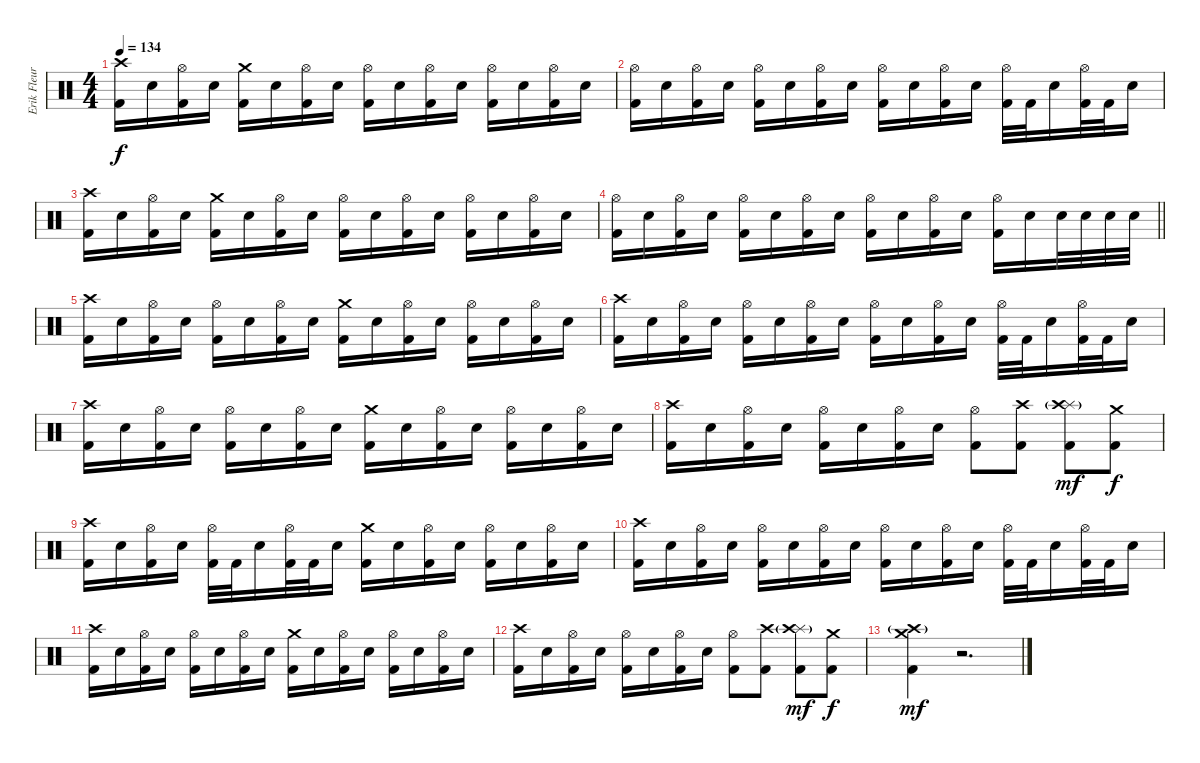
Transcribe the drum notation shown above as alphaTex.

\track ("Erik Fleuren" "Erik Fleur") {instrument percussion}
\staff {score}
\articulation defaults
\ts (4 4)
\tempo 134
\clef neutral
\ks c
("Crash high (hit)" "Kick (hit) 2").16{dy f} "Electric Snare (hit)".16 ("Hi-Hat (open)" "Kick (hit) 2").16 "Electric Snare (hit)".16 ("Crash medium (hit)" "Kick (hit) 2").16 "Electric Snare (hit)".16 ("Hi-Hat (open)" "Kick (hit) 2").16 "Electric Snare (hit)".16 ("Hi-Hat (open)" "Kick (hit) 2").16 "Electric Snare (hit)".16 ("Hi-Hat (open)" "Kick (hit) 2").16 "Electric Snare (hit)".16 ("Hi-Hat (open)" "Kick (hit) 2").16 "Electric Snare (hit)".16 ("Hi-Hat (open)" "Kick (hit) 2").16 "Electric Snare (hit)".16 |
("Hi-Hat (open)" "Kick (hit) 2").16 "Electric Snare (hit)".16 ("Hi-Hat (open)" "Kick (hit) 2").16 "Electric Snare (hit)".16 ("Hi-Hat (open)" "Kick (hit) 2").16 "Electric Snare (hit)".16 ("Hi-Hat (open)" "Kick (hit) 2").16 "Electric Snare (hit)".16 ("Hi-Hat (open)" "Kick (hit) 2").16 "Electric Snare (hit)".16 ("Hi-Hat (open)" "Kick (hit) 2").16 "Electric Snare (hit)".16 ("Hi-Hat (open)" "Kick (hit) 2").32 "Kick (hit) 2".32 "Electric Snare (hit)".16 ("Hi-Hat (open)" "Kick (hit) 2").32 "Kick (hit) 2".32 "Electric Snare (hit)".16 |
("Crash high (hit)" "Kick (hit) 2").16 "Electric Snare (hit)".16 ("Hi-Hat (open)" "Kick (hit) 2").16 "Electric Snare (hit)".16 ("Crash medium (hit)" "Kick (hit) 2").16 "Electric Snare (hit)".16 ("Hi-Hat (open)" "Kick (hit) 2").16 "Electric Snare (hit)".16 ("Hi-Hat (open)" "Kick (hit) 2").16 "Electric Snare (hit)".16 ("Hi-Hat (open)" "Kick (hit) 2").16 "Electric Snare (hit)".16 ("Hi-Hat (open)" "Kick (hit) 2").16 "Electric Snare (hit)".16 ("Hi-Hat (open)" "Kick (hit) 2").16 "Electric Snare (hit)".16 |
\barLineRight lightlight
("Hi-Hat (open)" "Kick (hit) 2").16 "Electric Snare (hit)".16 ("Hi-Hat (open)" "Kick (hit) 2").16 "Electric Snare (hit)".16 ("Hi-Hat (open)" "Kick (hit) 2").16 "Electric Snare (hit)".16 ("Hi-Hat (open)" "Kick (hit) 2").16 "Electric Snare (hit)".16 ("Hi-Hat (open)" "Kick (hit) 2").16 "Electric Snare (hit)".16 ("Hi-Hat (open)" "Kick (hit) 2").16 "Electric Snare (hit)".16 ("Hi-Hat (open)" "Kick (hit) 2").16 "Electric Snare (hit)".16 "Electric Snare (hit)".32 "Electric Snare (hit)".32 "Electric Snare (hit)".32 "Electric Snare (hit)".32 |
("Crash high (hit)" "Kick (hit) 2").16 "Electric Snare (hit)".16 ("Hi-Hat (open)" "Kick (hit) 2").16 "Electric Snare (hit)".16 ("Hi-Hat (open)" "Kick (hit) 2").16 "Electric Snare (hit)".16 ("Hi-Hat (open)" "Kick (hit) 2").16 "Electric Snare (hit)".16 ("Crash medium (hit)" "Kick (hit) 2").16 "Electric Snare (hit)".16 ("Hi-Hat (open)" "Kick (hit) 2").16 "Electric Snare (hit)".16 ("Hi-Hat (open)" "Kick (hit) 2").16 "Electric Snare (hit)".16 ("Hi-Hat (open)" "Kick (hit) 2").16 "Electric Snare (hit)".16 |
("Crash high (hit)" "Kick (hit) 2").16 "Electric Snare (hit)".16 ("Hi-Hat (open)" "Kick (hit) 2").16 "Electric Snare (hit)".16 ("Hi-Hat (open)" "Kick (hit) 2").16 "Electric Snare (hit)".16 ("Hi-Hat (open)" "Kick (hit) 2").16 "Electric Snare (hit)".16 ("Hi-Hat (open)" "Kick (hit) 2").16 "Electric Snare (hit)".16 ("Hi-Hat (open)" "Kick (hit) 2").16 "Electric Snare (hit)".16 ("Hi-Hat (open)" "Kick (hit) 2").32 "Kick (hit) 2".32 "Electric Snare (hit)".16 ("Hi-Hat (open)" "Kick (hit) 2").32 "Kick (hit) 2".32 "Electric Snare (hit)".16 |
("Crash high (hit)" "Kick (hit) 2").16 "Electric Snare (hit)".16 ("Hi-Hat (open)" "Kick (hit) 2").16 "Electric Snare (hit)".16 ("Hi-Hat (open)" "Kick (hit) 2").16 "Electric Snare (hit)".16 ("Hi-Hat (open)" "Kick (hit) 2").16 "Electric Snare (hit)".16 ("Crash medium (hit)" "Kick (hit) 2").16 "Electric Snare (hit)".16 ("Hi-Hat (open)" "Kick (hit) 2").16 "Electric Snare (hit)".16 ("Hi-Hat (open)" "Kick (hit) 2").16 "Electric Snare (hit)".16 ("Hi-Hat (open)" "Kick (hit) 2").16 "Electric Snare (hit)".16 |
("Crash high (hit)" "Kick (hit) 2").16 "Electric Snare (hit)".16 ("Hi-Hat (open)" "Kick (hit) 2").16 "Electric Snare (hit)".16 ("Hi-Hat (open)" "Kick (hit) 2").16 "Electric Snare (hit)".16 ("Hi-Hat (open)" "Kick (hit) 2").16 "Electric Snare (hit)".16 ("Hi-Hat (open)" "Kick (hit) 2").8 ("Crash high (hit)" "Kick (hit) 2").8 ("Splash (hit)"{g} "Crash high (hit)" "Kick (hit) 2").8{dy mf} ("Crash medium (hit)" "Kick (hit) 2").8{dy f} |
("Crash high (hit)" "Kick (hit) 2").16 "Electric Snare (hit)".16 ("Hi-Hat (open)" "Kick (hit) 2").16 "Electric Snare (hit)".16 ("Hi-Hat (open)" "Kick (hit) 2").32 "Kick (hit) 2".32 "Electric Snare (hit)".16 ("Hi-Hat (open)" "Kick (hit) 2").32 "Kick (hit) 2".32 "Electric Snare (hit)".16 ("Crash medium (hit)" "Kick (hit) 2").16 "Electric Snare (hit)".16 ("Hi-Hat (open)" "Kick (hit) 2").16 "Electric Snare (hit)".16 ("Hi-Hat (open)" "Kick (hit) 2").16 "Electric Snare (hit)".16 ("Hi-Hat (open)" "Kick (hit) 2").16 "Electric Snare (hit)".16 |
("Crash high (hit)" "Kick (hit) 2").16 "Electric Snare (hit)".16 ("Hi-Hat (open)" "Kick (hit) 2").16 "Electric Snare (hit)".16 ("Hi-Hat (open)" "Kick (hit) 2").16 "Electric Snare (hit)".16 ("Hi-Hat (open)" "Kick (hit) 2").16 "Electric Snare (hit)".16 ("Hi-Hat (open)" "Kick (hit) 2").16 "Electric Snare (hit)".16 ("Hi-Hat (open)" "Kick (hit) 2").16 "Electric Snare (hit)".16 ("Hi-Hat (open)" "Kick (hit) 2").32 "Kick (hit) 2".32 "Electric Snare (hit)".16 ("Hi-Hat (open)" "Kick (hit) 2").32 "Kick (hit) 2".32 "Electric Snare (hit)".16 |
("Crash high (hit)" "Kick (hit) 2").16 "Electric Snare (hit)".16 ("Hi-Hat (open)" "Kick (hit) 2").16 "Electric Snare (hit)".16 ("Hi-Hat (open)" "Kick (hit) 2").16 "Electric Snare (hit)".16 ("Hi-Hat (open)" "Kick (hit) 2").16 "Electric Snare (hit)".16 ("Crash medium (hit)" "Kick (hit) 2").16 "Electric Snare (hit)".16 ("Hi-Hat (open)" "Kick (hit) 2").16 "Electric Snare (hit)".16 ("Hi-Hat (open)" "Kick (hit) 2").16 "Electric Snare (hit)".16 ("Hi-Hat (open)" "Kick (hit) 2").16 "Electric Snare (hit)".16 |
("Crash high (hit)" "Kick (hit) 2").16 "Electric Snare (hit)".16 ("Hi-Hat (open)" "Kick (hit) 2").16 "Electric Snare (hit)".16 ("Hi-Hat (open)" "Kick (hit) 2").16 "Electric Snare (hit)".16 ("Hi-Hat (open)" "Kick (hit) 2").16 "Electric Snare (hit)".16 ("Hi-Hat (open)" "Kick (hit) 2").8 ("Crash high (hit)" "Kick (hit) 2").8 ("Splash (hit)"{g} "Crash high (hit)" "Kick (hit) 2").8{dy mf} ("Crash medium (hit)" "Kick (hit) 2").8{dy f} |
("Crash medium (hit)" "Crash high (hit)"{g} "Kick (hit) 2").4{dy mf} r.2{d}
